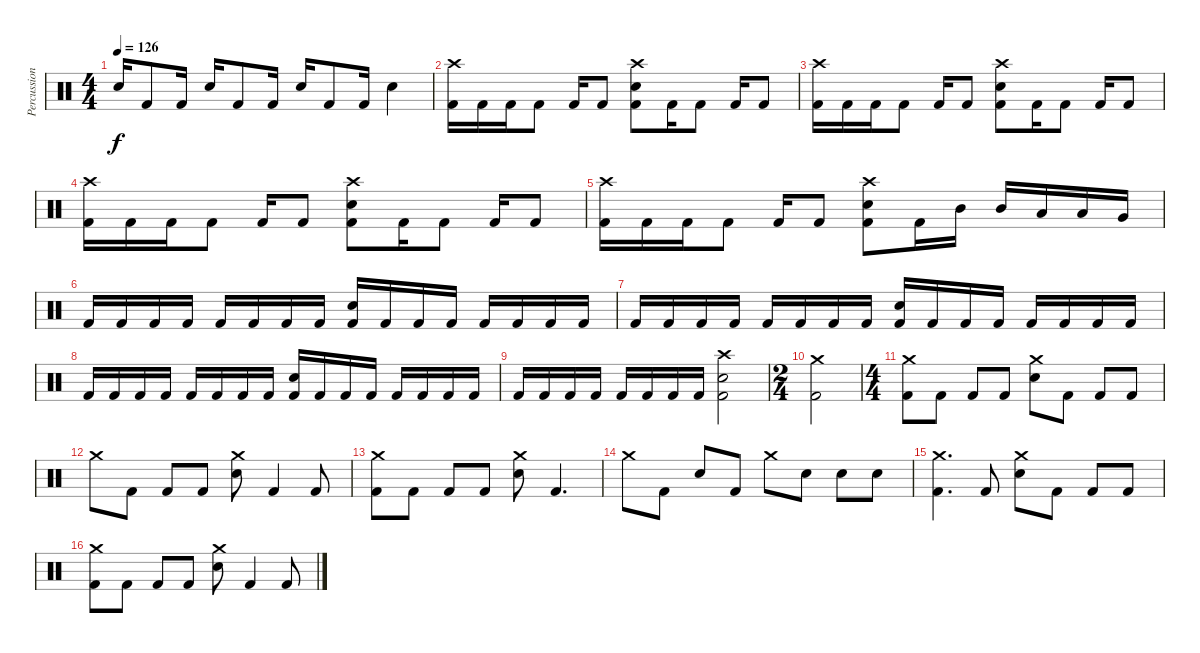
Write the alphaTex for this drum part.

\track ("Percussion" "Percussion") {instrument percussion}
\staff {score}
\articulation defaults
\ts (4 4)
\tempo 126
\clef neutral
\ks c "Electric Snare (hit)".16{dy f} "Kick (hit) 2".8 "Kick (hit) 2".16 "Electric Snare (hit)".16 "Kick (hit) 2".8 "Kick (hit) 2".16 "Electric Snare (hit)".16 "Kick (hit) 2".8 "Kick (hit) 2".16 "Electric Snare (hit)".4
|
("Crash high (hit)" "Kick (hit) 2").16 "Kick (hit) 2".16 "Kick (hit) 2".16 "Kick (hit) 2".8 "Kick (hit) 2".16 "Kick (hit) 2".8 ("Crash high (hit)" "Electric Snare (hit)" "Kick (hit) 2").8 "Kick (hit) 2".16 "Kick (hit) 2".8 "Kick (hit) 2".16 "Kick (hit) 2".8 |
("Crash high (hit)" "Kick (hit) 2").16 "Kick (hit) 2".16 "Kick (hit) 2".16 "Kick (hit) 2".8 "Kick (hit) 2".16 "Kick (hit) 2".8 ("Crash high (hit)" "Electric Snare (hit)" "Kick (hit) 2").8 "Kick (hit) 2".16 "Kick (hit) 2".8 "Kick (hit) 2".16 "Kick (hit) 2".8 |
("Crash high (hit)" "Kick (hit) 2").16 "Kick (hit) 2".16 "Kick (hit) 2".16 "Kick (hit) 2".8 "Kick (hit) 2".16 "Kick (hit) 2".8 ("Crash high (hit)" "Electric Snare (hit)" "Kick (hit) 2").8 "Kick (hit) 2".16 "Kick (hit) 2".8 "Kick (hit) 2".16 "Kick (hit) 2".8 |
("Crash high (hit)" "Kick (hit) 2").16 "Kick (hit) 2".16 "Kick (hit) 2".16 "Kick (hit) 2".8 "Kick (hit) 2".16 "Kick (hit) 2".8 ("Crash high (hit)" "Electric Snare (hit)" "Kick (hit) 2").8 "Kick (hit) 2".16 "Mid Tom (hit)".16 "Mid Tom (hit)".16 "Low Tom (hit)".16 "Low Tom (hit)".16 "Very Low Tom (hit)".16 |
"Kick (hit) 2".16 "Kick (hit) 2".16 "Kick (hit) 2".16 "Kick (hit) 2".16 "Kick (hit) 2".16 "Kick (hit) 2".16 "Kick (hit) 2".16 "Kick (hit) 2".16 ("Electric Snare (hit)" "Kick (hit) 2").16 "Kick (hit) 2".16 "Kick (hit) 2".16 "Kick (hit) 2".16 "Kick (hit) 2".16 "Kick (hit) 2".16 "Kick (hit) 2".16 "Kick (hit) 2".16 |
"Kick (hit) 2".16 "Kick (hit) 2".16 "Kick (hit) 2".16 "Kick (hit) 2".16 "Kick (hit) 2".16 "Kick (hit) 2".16 "Kick (hit) 2".16 "Kick (hit) 2".16 ("Electric Snare (hit)" "Kick (hit) 2").16 "Kick (hit) 2".16 "Kick (hit) 2".16 "Kick (hit) 2".16 "Kick (hit) 2".16 "Kick (hit) 2".16 "Kick (hit) 2".16 "Kick (hit) 2".16 |
"Kick (hit) 2".16 "Kick (hit) 2".16 "Kick (hit) 2".16 "Kick (hit) 2".16 "Kick (hit) 2".16 "Kick (hit) 2".16 "Kick (hit) 2".16 "Kick (hit) 2".16 ("Electric Snare (hit)" "Kick (hit) 2").16 "Kick (hit) 2".16 "Kick (hit) 2".16 "Kick (hit) 2".16 "Kick (hit) 2".16 "Kick (hit) 2".16 "Kick (hit) 2".16 "Kick (hit) 2".16 |
"Kick (hit) 2".16 "Kick (hit) 2".16 "Kick (hit) 2".16 "Kick (hit) 2".16 "Kick (hit) 2".16 "Kick (hit) 2".16 "Kick (hit) 2".16 "Kick (hit) 2".16 ("Crash high (hit)" "Electric Snare (hit)" "Kick (hit) 2").2 |
\ts (2 4)
("Crash medium (hit)" "Kick (hit) 2").2 |
\ts (4 4)
("Crash medium (hit)" "Kick (hit) 2").8 "Kick (hit) 2".8 "Kick (hit) 2".8 "Kick (hit) 2".8 ("Crash medium (hit)" "Electric Snare (hit)").8 "Kick (hit) 2".8 "Kick (hit) 2".8 "Kick (hit) 2".8 |
"Crash medium (hit)".8 "Kick (hit) 2".8 "Kick (hit) 2".8 "Kick (hit) 2".8 ("Crash medium (hit)" "Electric Snare (hit)").8 "Kick (hit) 2".4 "Kick (hit) 2".8 |
("Crash medium (hit)" "Kick (hit) 2").8 "Kick (hit) 2".8 "Kick (hit) 2".8 "Kick (hit) 2".8 ("Crash medium (hit)" "Electric Snare (hit)").8 "Kick (hit) 2".4{d} |
"Crash medium (hit)".8 "Kick (hit) 2".8 "Electric Snare (hit)".8 "Kick (hit) 2".8 "Crash medium (hit)".8 "Electric Snare (hit)".8 "Electric Snare (hit)".8 "Electric Snare (hit)".8 |
("Crash medium (hit)" "Kick (hit) 2").4{d} "Kick (hit) 2".8 ("Crash medium (hit)" "Electric Snare (hit)").8 "Kick (hit) 2".8 "Kick (hit) 2".8 "Kick (hit) 2".8 |
("Crash medium (hit)" "Kick (hit) 2").8 "Kick (hit) 2".8 "Kick (hit) 2".8 "Kick (hit) 2".8 ("Crash medium (hit)" "Electric Snare (hit)").8 "Kick (hit) 2".4 "Kick (hit) 2".8
